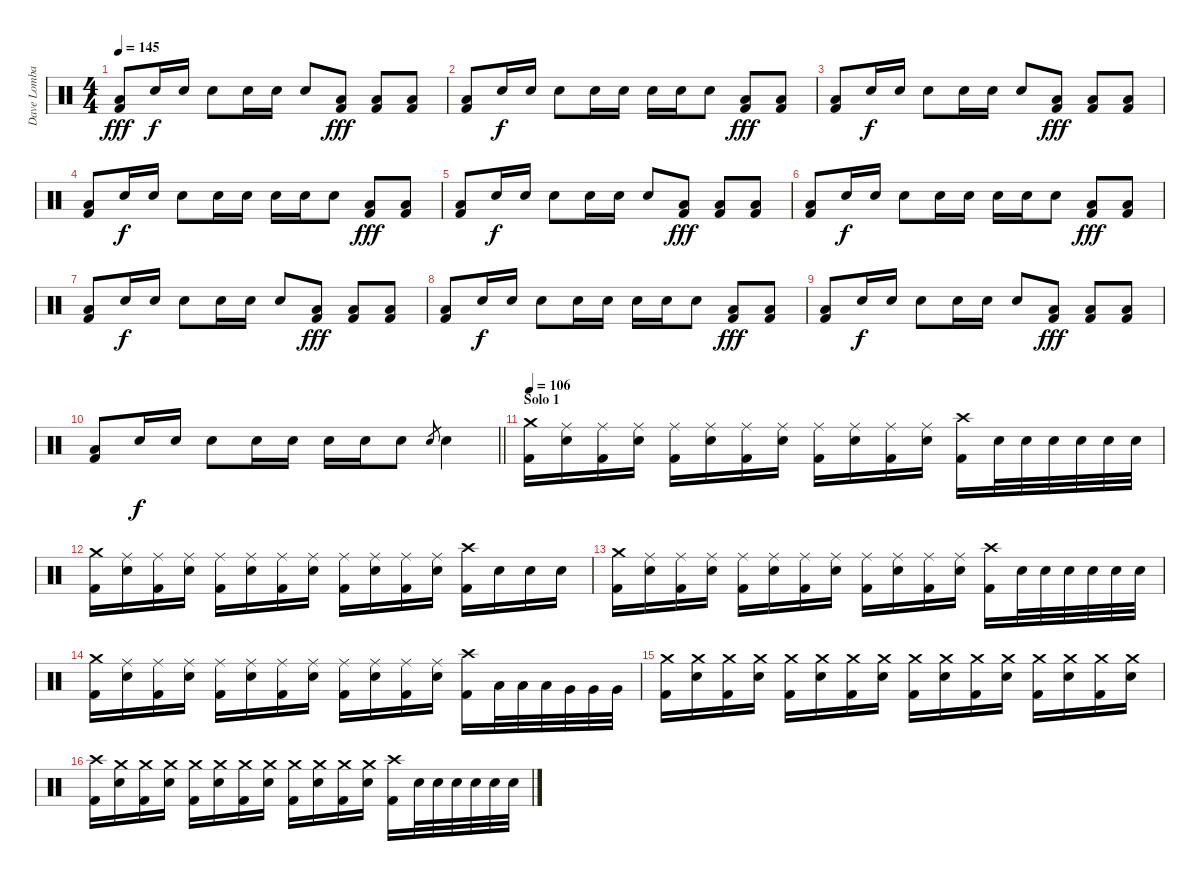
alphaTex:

\track ("Dave Lombardo" "Dave Lomba") {instrument percussion}
\staff {score}
\articulation defaults
\ts (4 4)
\tempo 145
\clef neutral
\ks c
("Low Floor Tom (hit)" "Kick (hit) 2").8{dy fff} "Snare (hit) 2".16{dy f} "Snare (hit) 2".16 "Snare (hit) 2".8 "Snare (hit) 2".16 "Snare (hit) 2".16 "Snare (hit) 2".8 ("Low Floor Tom (hit)" "Kick (hit) 2").8{dy fff} ("Low Floor Tom (hit)" "Kick (hit) 2").8 ("Low Floor Tom (hit)" "Kick (hit) 2").8 |
("Low Floor Tom (hit)" "Kick (hit) 2").8 "Snare (hit) 2".16{dy f} "Snare (hit) 2".16 "Snare (hit) 2".8 "Snare (hit) 2".16 "Snare (hit) 2".16 "Snare (hit) 2".16 "Snare (hit) 2".16 "Snare (hit) 2".8 ("Low Floor Tom (hit)" "Kick (hit) 2").8{dy fff} ("Low Floor Tom (hit)" "Kick (hit) 2").8 |
("Low Floor Tom (hit)" "Kick (hit) 2").8 "Snare (hit) 2".16{dy f} "Snare (hit) 2".16 "Snare (hit) 2".8 "Snare (hit) 2".16 "Snare (hit) 2".16 "Snare (hit) 2".8 ("Low Floor Tom (hit)" "Kick (hit) 2").8{dy fff} ("Low Floor Tom (hit)" "Kick (hit) 2").8 ("Low Floor Tom (hit)" "Kick (hit) 2").8 |
("Low Floor Tom (hit)" "Kick (hit) 2").8 "Snare (hit) 2".16{dy f} "Snare (hit) 2".16 "Snare (hit) 2".8 "Snare (hit) 2".16 "Snare (hit) 2".16 "Snare (hit) 2".16 "Snare (hit) 2".16 "Snare (hit) 2".8 ("Low Floor Tom (hit)" "Kick (hit) 2").8{dy fff} ("Low Floor Tom (hit)" "Kick (hit) 2").8 |
("Low Floor Tom (hit)" "Kick (hit) 2").8 "Snare (hit) 2".16{dy f} "Snare (hit) 2".16 "Snare (hit) 2".8 "Snare (hit) 2".16 "Snare (hit) 2".16 "Snare (hit) 2".8 ("Low Floor Tom (hit)" "Kick (hit) 2").8{dy fff} ("Low Floor Tom (hit)" "Kick (hit) 2").8 ("Low Floor Tom (hit)" "Kick (hit) 2").8 |
("Low Floor Tom (hit)" "Kick (hit) 2").8 "Snare (hit) 2".16{dy f} "Snare (hit) 2".16 "Snare (hit) 2".8 "Snare (hit) 2".16 "Snare (hit) 2".16 "Snare (hit) 2".16 "Snare (hit) 2".16 "Snare (hit) 2".8 ("Low Floor Tom (hit)" "Kick (hit) 2").8{dy fff} ("Low Floor Tom (hit)" "Kick (hit) 2").8 |
("Low Floor Tom (hit)" "Kick (hit) 2").8 "Snare (hit) 2".16{dy f} "Snare (hit) 2".16 "Snare (hit) 2".8 "Snare (hit) 2".16 "Snare (hit) 2".16 "Snare (hit) 2".8 ("Low Floor Tom (hit)" "Kick (hit) 2").8{dy fff} ("Low Floor Tom (hit)" "Kick (hit) 2").8 ("Low Floor Tom (hit)" "Kick (hit) 2").8 |
("Low Floor Tom (hit)" "Kick (hit) 2").8 "Snare (hit) 2".16{dy f} "Snare (hit) 2".16 "Snare (hit) 2".8 "Snare (hit) 2".16 "Snare (hit) 2".16 "Snare (hit) 2".16 "Snare (hit) 2".16 "Snare (hit) 2".8 ("Low Floor Tom (hit)" "Kick (hit) 2").8{dy fff} ("Low Floor Tom (hit)" "Kick (hit) 2").8 |
("Low Floor Tom (hit)" "Kick (hit) 2").8 "Snare (hit) 2".16{dy f} "Snare (hit) 2".16 "Snare (hit) 2".8 "Snare (hit) 2".16 "Snare (hit) 2".16 "Snare (hit) 2".8 ("Low Floor Tom (hit)" "Kick (hit) 2").8{dy fff} ("Low Floor Tom (hit)" "Kick (hit) 2").8 ("Low Floor Tom (hit)" "Kick (hit) 2").8 |
\barLineRight lightlight
("Low Floor Tom (hit)" "Kick (hit) 2").8 "Snare (hit) 2".16{dy f} "Snare (hit) 2".16 "Snare (hit) 2".8 "Snare (hit) 2".16 "Snare (hit) 2".16 "Snare (hit) 2".16 "Snare (hit) 2".16 "Snare (hit) 2".8 "Snare (hit) 2".8{gr} "Snare (hit) 2".4 |
\section ("" "Solo 1 ")
\tempo 106
("Crash medium (hit)" "Kick (hit) 2").16 ("Ride (middle)" "Snare (hit) 2").16 ("Ride (middle)" "Kick (hit) 2").16 ("Ride (middle)" "Snare (hit) 2").16 ("Ride (middle)" "Kick (hit) 2").16 ("Ride (middle)" "Snare (hit) 2").16 ("Ride (middle)" "Kick (hit) 2").16 ("Ride (middle)" "Snare (hit) 2").16 ("Ride (middle)" "Kick (hit) 2").16 ("Ride (middle)" "Snare (hit) 2").16 ("Ride (middle)" "Kick (hit) 2").16 ("Ride (middle)" "Snare (hit) 2").16 ("Crash high (hit)" "Kick (hit) 2").16 "Snare (hit) 2".32 "Snare (hit) 2".32 "Snare (hit) 2".32 "Snare (hit) 2".32 "Snare (hit) 2".32 "Snare (hit) 2".32 |
("Crash medium (hit)" "Kick (hit) 2").16 ("Ride (middle)" "Snare (hit) 2").16 ("Ride (middle)" "Kick (hit) 2").16 ("Ride (middle)" "Snare (hit) 2").16 ("Ride (middle)" "Kick (hit) 2").16 ("Ride (middle)" "Snare (hit) 2").16 ("Ride (middle)" "Kick (hit) 2").16 ("Ride (middle)" "Snare (hit) 2").16 ("Ride (middle)" "Kick (hit) 2").16 ("Ride (middle)" "Snare (hit) 2").16 ("Ride (middle)" "Kick (hit) 2").16 ("Ride (middle)" "Snare (hit) 2").16 ("Crash high (hit)" "Kick (hit) 2").16 "Snare (hit) 2".16 "Snare (hit) 2".16 "Snare (hit) 2".16 |
("Crash medium (hit)" "Kick (hit) 2").16 ("Ride (middle)" "Snare (hit) 2").16 ("Ride (middle)" "Kick (hit) 2").16 ("Ride (middle)" "Snare (hit) 2").16 ("Ride (middle)" "Kick (hit) 2").16 ("Ride (middle)" "Snare (hit) 2").16 ("Ride (middle)" "Kick (hit) 2").16 ("Ride (middle)" "Snare (hit) 2").16 ("Ride (middle)" "Kick (hit) 2").16 ("Ride (middle)" "Snare (hit) 2").16 ("Ride (middle)" "Kick (hit) 2").16 ("Ride (middle)" "Snare (hit) 2").16 ("Crash high (hit)" "Kick (hit) 2").16 "Snare (hit) 2".32 "Snare (hit) 2".32 "Snare (hit) 2".32 "Snare (hit) 2".32 "Snare (hit) 2".32 "Snare (hit) 2".32 |
("Crash medium (hit)" "Kick (hit) 2").16 ("Ride (middle)" "Snare (hit) 2").16 ("Ride (middle)" "Kick (hit) 2").16 ("Ride (middle)" "Snare (hit) 2").16 ("Ride (middle)" "Kick (hit) 2").16 ("Ride (middle)" "Snare (hit) 2").16 ("Ride (middle)" "Kick (hit) 2").16 ("Ride (middle)" "Snare (hit) 2").16 ("Ride (middle)" "Kick (hit) 2").16 ("Ride (middle)" "Snare (hit) 2").16 ("Ride (middle)" "Kick (hit) 2").16 ("Ride (middle)" "Snare (hit) 2").16 ("Crash high (hit)" "Kick (hit) 2").16 "Low Tom (hit)".32 "Low Tom (hit)".32 "Low Tom (hit)".32 "Very Low Tom (hit)".32 "Very Low Tom (hit)".32 "Very Low Tom (hit)".32 |
("Crash medium (hit)" "Kick (hit) 2").16 ("Crash medium (hit)" "Snare (hit) 2").16 ("Crash medium (hit)" "Kick (hit) 2").16 ("Crash medium (hit)" "Snare (hit) 2").16 ("Crash medium (hit)" "Kick (hit) 2").16 ("Crash medium (hit)" "Snare (hit) 2").16 ("Crash medium (hit)" "Kick (hit) 2").16 ("Crash medium (hit)" "Snare (hit) 2").16 ("Crash medium (hit)" "Kick (hit) 2").16 ("Crash medium (hit)" "Snare (hit) 2").16 ("Crash medium (hit)" "Kick (hit) 2").16 ("Crash medium (hit)" "Snare (hit) 2").16 ("Crash medium (hit)" "Kick (hit) 2").16 ("Crash medium (hit)" "Snare (hit) 2").16 ("Crash medium (hit)" "Kick (hit) 2").16 ("Crash medium (hit)" "Snare (hit) 2").16 |
("Crash high (hit)" "Kick (hit) 2").16 ("Crash medium (hit)" "Snare (hit) 2").16 ("Crash medium (hit)" "Kick (hit) 2").16 ("Crash medium (hit)" "Snare (hit) 2").16 ("Crash medium (hit)" "Kick (hit) 2").16 ("Crash medium (hit)" "Snare (hit) 2").16 ("Crash medium (hit)" "Kick (hit) 2").16 ("Crash medium (hit)" "Snare (hit) 2").16 ("Crash medium (hit)" "Kick (hit) 2").16 ("Crash medium (hit)" "Snare (hit) 2").16 ("Crash medium (hit)" "Kick (hit) 2").16 ("Crash medium (hit)" "Snare (hit) 2").16 ("Crash high (hit)" "Kick (hit) 2").16 "Snare (hit) 2".32 "Snare (hit) 2".32 "Snare (hit) 2".32 "Snare (hit) 2".32 "Snare (hit) 2".32 "Snare (hit) 2".32
